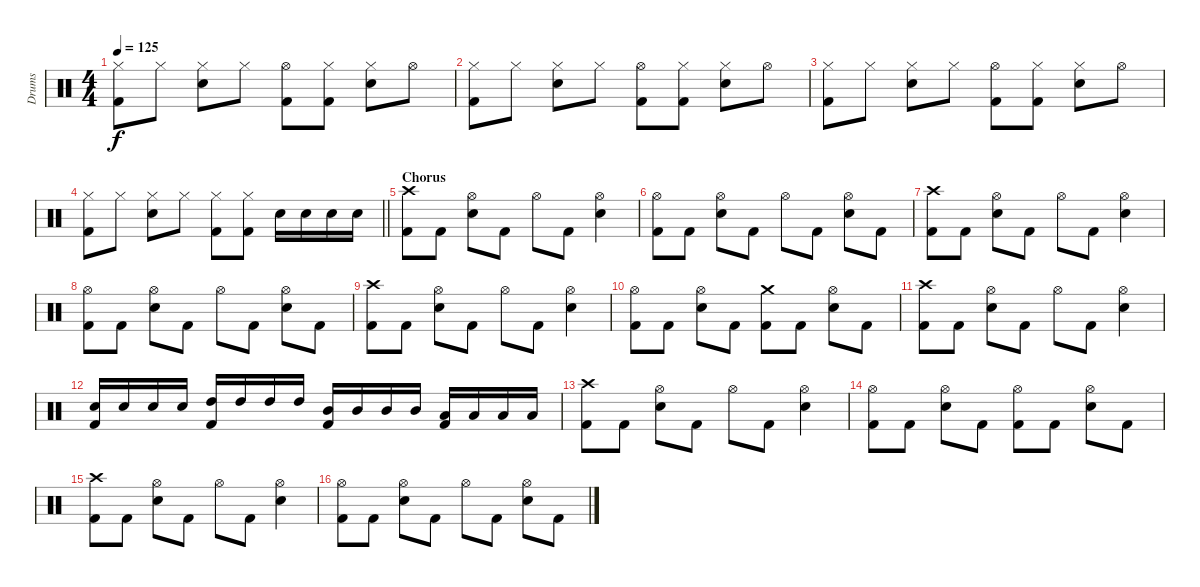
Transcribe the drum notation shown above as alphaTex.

\track ("Drums" "Drums") {instrument percussion}
\staff {score}
\articulation defaults
\ts (4 4)
\tempo 125
\clef neutral
\ks c
("Hi-Hat (closed)" "Kick (hit) 2").8{dy f} "Hi-Hat (closed)".8 ("Hi-Hat (closed)" "Electric Snare (hit)").8 "Hi-Hat (closed)".8 ("Hi-Hat (open)" "Kick (hit) 2").8 ("Hi-Hat (closed)" "Kick (hit) 2").8 ("Hi-Hat (closed)" "Electric Snare (hit)").8 "Hi-Hat (open)".8 |
("Hi-Hat (closed)" "Kick (hit) 2").8 "Hi-Hat (closed)".8 ("Hi-Hat (closed)" "Electric Snare (hit)").8 "Hi-Hat (closed)".8 ("Hi-Hat (open)" "Kick (hit) 2").8 ("Hi-Hat (closed)" "Kick (hit) 2").8 ("Hi-Hat (closed)" "Electric Snare (hit)").8 "Hi-Hat (open)".8 |
("Hi-Hat (closed)" "Kick (hit) 2").8 "Hi-Hat (closed)".8 ("Hi-Hat (closed)" "Electric Snare (hit)").8 "Hi-Hat (closed)".8 ("Hi-Hat (open)" "Kick (hit) 2").8 ("Hi-Hat (closed)" "Kick (hit) 2").8 ("Hi-Hat (closed)" "Electric Snare (hit)").8 "Hi-Hat (open)".8 |
\barLineRight lightlight
("Hi-Hat (closed)" "Kick (hit) 2").8 "Hi-Hat (closed)".8 ("Hi-Hat (closed)" "Electric Snare (hit)").8 "Hi-Hat (closed)".8 ("Hi-Hat (closed)" "Kick (hit) 2").8 ("Hi-Hat (closed)" "Kick (hit) 2").8 "Electric Snare (hit)".16 "Electric Snare (hit)".16 "Electric Snare (hit)".16 "Electric Snare (hit)".16 |
\section ("" "Chorus")
("Crash high (hit)" "Kick (hit) 2").8 "Kick (hit) 2".8 ("Hi-Hat (open)" "Electric Snare (hit)").8 "Kick (hit) 2".8 "Hi-Hat (open)".8 "Kick (hit) 2".8 ("Hi-Hat (open)" "Electric Snare (hit)").4 |
("Hi-Hat (open)" "Kick (hit) 2").8 "Kick (hit) 2".8 ("Hi-Hat (open)" "Electric Snare (hit)").8 "Kick (hit) 2".8 "Hi-Hat (open)".8 "Kick (hit) 2".8 ("Hi-Hat (open)" "Electric Snare (hit)").8 "Kick (hit) 2".8 |
("Crash high (hit)" "Kick (hit) 2").8 "Kick (hit) 2".8 ("Hi-Hat (open)" "Electric Snare (hit)").8 "Kick (hit) 2".8 "Hi-Hat (open)".8 "Kick (hit) 2".8 ("Hi-Hat (open)" "Electric Snare (hit)").4 |
("Hi-Hat (open)" "Kick (hit) 2").8 "Kick (hit) 2".8 ("Hi-Hat (open)" "Electric Snare (hit)").8 "Kick (hit) 2".8 "Hi-Hat (open)".8 "Kick (hit) 2".8 ("Hi-Hat (open)" "Electric Snare (hit)").8 "Kick (hit) 2".8 |
("Crash high (hit)" "Kick (hit) 2").8 "Kick (hit) 2".8 ("Hi-Hat (open)" "Electric Snare (hit)").8 "Kick (hit) 2".8 "Hi-Hat (open)".8 "Kick (hit) 2".8 ("Hi-Hat (open)" "Electric Snare (hit)").4 |
("Hi-Hat (open)" "Kick (hit) 2").8 "Kick (hit) 2".8 ("Hi-Hat (open)" "Electric Snare (hit)").8 "Kick (hit) 2".8 ("Crash medium (hit)" "Kick (hit) 2").8 "Kick (hit) 2".8 ("Hi-Hat (open)" "Electric Snare (hit)").8 "Kick (hit) 2".8 |
("Crash high (hit)" "Kick (hit) 2").8 "Kick (hit) 2".8 ("Hi-Hat (open)" "Electric Snare (hit)").8 "Kick (hit) 2".8 "Hi-Hat (open)".8 "Kick (hit) 2".8 ("Hi-Hat (open)" "Electric Snare (hit)").4 |
("Electric Snare (hit)" "Kick (hit) 2").16 "Electric Snare (hit)".16 "Electric Snare (hit)".16 "Electric Snare (hit)".16 ("High Tom (hit)" "Kick (hit) 2").16 "High Tom (hit)".16 "High Tom (hit)".16 "High Tom (hit)".16 ("Mid Tom (hit)" "Kick (hit) 2").16 "Mid Tom (hit)".16 "Mid Tom (hit)".16 "Mid Tom (hit)".16 ("Low Tom (hit)" "Kick (hit) 2").16 "Low Tom (hit)".16 "Low Tom (hit)".16 "Low Tom (hit)".16 |
("Crash high (hit)" "Kick (hit) 2").8 "Kick (hit) 2".8 ("Hi-Hat (open)" "Electric Snare (hit)").8 "Kick (hit) 2".8 "Hi-Hat (open)".8 "Kick (hit) 2".8 ("Hi-Hat (open)" "Electric Snare (hit)").4 |
("Hi-Hat (open)" "Kick (hit) 2").8 "Kick (hit) 2".8 ("Hi-Hat (open)" "Electric Snare (hit)").8 "Kick (hit) 2".8 ("Hi-Hat (open)" "Kick (hit) 2").8 "Kick (hit) 2".8 ("Hi-Hat (open)" "Electric Snare (hit)").8 "Kick (hit) 2".8 |
("Crash high (hit)" "Kick (hit) 2").8 "Kick (hit) 2".8 ("Hi-Hat (open)" "Electric Snare (hit)").8 "Kick (hit) 2".8 "Hi-Hat (open)".8 "Kick (hit) 2".8 ("Hi-Hat (open)" "Electric Snare (hit)").4 |
("Hi-Hat (open)" "Kick (hit) 2").8 "Kick (hit) 2".8 ("Hi-Hat (open)" "Electric Snare (hit)").8 "Kick (hit) 2".8 "Hi-Hat (open)".8 "Kick (hit) 2".8 ("Hi-Hat (open)" "Electric Snare (hit)").8 "Kick (hit) 2".8
